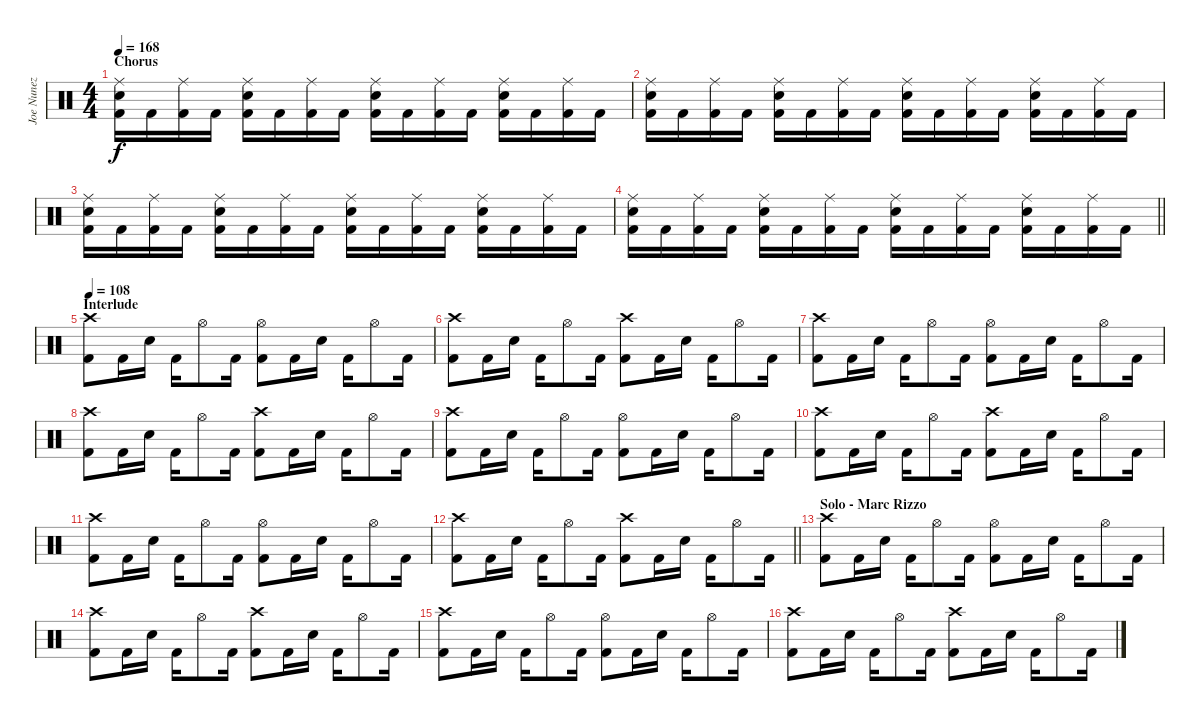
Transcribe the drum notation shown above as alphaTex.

\track ("Joe Nunez (Drums)" "Joe Nunez ") {instrument percussion}
\staff {score}
\articulation defaults
\ts (4 4)
\section ("" "Chorus")
\tempo 168
\clef neutral
\ks c
("Ride (middle)" "Snare (hit) 2" "Kick (hit) 2").16{dy f} "Kick (hit) 2".16 ("Ride (middle)" "Kick (hit) 2").16 "Kick (hit) 2".16 ("Ride (middle)" "Snare (hit) 2" "Kick (hit) 2").16 "Kick (hit) 2".16 ("Ride (middle)" "Kick (hit) 2").16 "Kick (hit) 2".16 ("Ride (middle)" "Snare (hit) 2" "Kick (hit) 2").16 "Kick (hit) 2".16 ("Ride (middle)" "Kick (hit) 2").16 "Kick (hit) 2".16 ("Ride (middle)" "Snare (hit) 2" "Kick (hit) 2").16 "Kick (hit) 2".16 ("Ride (middle)" "Kick (hit) 2").16 "Kick (hit) 2".16 |
("Ride (middle)" "Snare (hit) 2" "Kick (hit) 2").16 "Kick (hit) 2".16 ("Ride (middle)" "Kick (hit) 2").16 "Kick (hit) 2".16 ("Ride (middle)" "Snare (hit) 2" "Kick (hit) 2").16 "Kick (hit) 2".16 ("Ride (middle)" "Kick (hit) 2").16 "Kick (hit) 2".16 ("Ride (middle)" "Snare (hit) 2" "Kick (hit) 2").16 "Kick (hit) 2".16 ("Ride (middle)" "Kick (hit) 2").16 "Kick (hit) 2".16 ("Ride (middle)" "Snare (hit) 2" "Kick (hit) 2").16 "Kick (hit) 2".16 ("Ride (middle)" "Kick (hit) 2").16 "Kick (hit) 2".16 |
("Ride (middle)" "Snare (hit) 2" "Kick (hit) 2").16 "Kick (hit) 2".16 ("Ride (middle)" "Kick (hit) 2").16 "Kick (hit) 2".16 ("Ride (middle)" "Snare (hit) 2" "Kick (hit) 2").16 "Kick (hit) 2".16 ("Ride (middle)" "Kick (hit) 2").16 "Kick (hit) 2".16 ("Ride (middle)" "Snare (hit) 2" "Kick (hit) 2").16 "Kick (hit) 2".16 ("Ride (middle)" "Kick (hit) 2").16 "Kick (hit) 2".16 ("Ride (middle)" "Snare (hit) 2" "Kick (hit) 2").16 "Kick (hit) 2".16 ("Ride (middle)" "Kick (hit) 2").16 "Kick (hit) 2".16 |
\barLineRight lightlight
("Ride (middle)" "Snare (hit) 2" "Kick (hit) 2").16 "Kick (hit) 2".16 ("Ride (middle)" "Kick (hit) 2").16 "Kick (hit) 2".16 ("Ride (middle)" "Snare (hit) 2" "Kick (hit) 2").16 "Kick (hit) 2".16 ("Ride (middle)" "Kick (hit) 2").16 "Kick (hit) 2".16 ("Ride (middle)" "Snare (hit) 2" "Kick (hit) 2").16 "Kick (hit) 2".16 ("Ride (middle)" "Kick (hit) 2").16 "Kick (hit) 2".16 ("Ride (middle)" "Snare (hit) 2" "Kick (hit) 2").16 "Kick (hit) 2".16 ("Ride (middle)" "Kick (hit) 2").16 "Kick (hit) 2".16 |
\section ("" "Interlude")
\tempo 108
("Crash high (hit)" "Kick (hit) 2").8 "Kick (hit) 2".16 "Snare (hit) 2".16 "Kick (hit) 2".16 "Hi-Hat (open)".8 "Kick (hit) 2".16 ("Hi-Hat (open)" "Kick (hit) 2").8 "Kick (hit) 2".16 "Snare (hit) 2".16 "Kick (hit) 2".16 "Hi-Hat (open)".8 "Kick (hit) 2".16 |
("Crash high (hit)" "Kick (hit) 2").8 "Kick (hit) 2".16 "Snare (hit) 2".16 "Kick (hit) 2".16 "Hi-Hat (open)".8 "Kick (hit) 2".16 ("Crash high (hit)" "Kick (hit) 2").8 "Kick (hit) 2".16 "Snare (hit) 2".16 "Kick (hit) 2".16 "Hi-Hat (open)".8 "Kick (hit) 2".16 |
("Crash high (hit)" "Kick (hit) 2").8 "Kick (hit) 2".16 "Snare (hit) 2".16 "Kick (hit) 2".16 "Hi-Hat (open)".8 "Kick (hit) 2".16 ("Hi-Hat (open)" "Kick (hit) 2").8 "Kick (hit) 2".16 "Snare (hit) 2".16 "Kick (hit) 2".16 "Hi-Hat (open)".8 "Kick (hit) 2".16 |
("Crash high (hit)" "Kick (hit) 2").8 "Kick (hit) 2".16 "Snare (hit) 2".16 "Kick (hit) 2".16 "Hi-Hat (open)".8 "Kick (hit) 2".16 ("Crash high (hit)" "Kick (hit) 2").8 "Kick (hit) 2".16 "Snare (hit) 2".16 "Kick (hit) 2".16 "Hi-Hat (open)".8 "Kick (hit) 2".16 |
("Crash high (hit)" "Kick (hit) 2").8 "Kick (hit) 2".16 "Snare (hit) 2".16 "Kick (hit) 2".16 "Hi-Hat (open)".8 "Kick (hit) 2".16 ("Hi-Hat (open)" "Kick (hit) 2").8 "Kick (hit) 2".16 "Snare (hit) 2".16 "Kick (hit) 2".16 "Hi-Hat (open)".8 "Kick (hit) 2".16 |
("Crash high (hit)" "Kick (hit) 2").8 "Kick (hit) 2".16 "Snare (hit) 2".16 "Kick (hit) 2".16 "Hi-Hat (open)".8 "Kick (hit) 2".16 ("Crash high (hit)" "Kick (hit) 2").8 "Kick (hit) 2".16 "Snare (hit) 2".16 "Kick (hit) 2".16 "Hi-Hat (open)".8 "Kick (hit) 2".16 |
("Crash high (hit)" "Kick (hit) 2").8 "Kick (hit) 2".16 "Snare (hit) 2".16 "Kick (hit) 2".16 "Hi-Hat (open)".8 "Kick (hit) 2".16 ("Hi-Hat (open)" "Kick (hit) 2").8 "Kick (hit) 2".16 "Snare (hit) 2".16 "Kick (hit) 2".16 "Hi-Hat (open)".8 "Kick (hit) 2".16 |
\barLineRight lightlight
("Crash high (hit)" "Kick (hit) 2").8 "Kick (hit) 2".16 "Snare (hit) 2".16 "Kick (hit) 2".16 "Hi-Hat (open)".8 "Kick (hit) 2".16 ("Crash high (hit)" "Kick (hit) 2").8 "Kick (hit) 2".16 "Snare (hit) 2".16 "Kick (hit) 2".16 "Hi-Hat (open)".8 "Kick (hit) 2".16 |
\section ("" "Solo - Marc Rizzo")
("Crash high (hit)" "Kick (hit) 2").8 "Kick (hit) 2".16 "Snare (hit) 2".16 "Kick (hit) 2".16 "Hi-Hat (open)".8 "Kick (hit) 2".16 ("Hi-Hat (open)" "Kick (hit) 2").8 "Kick (hit) 2".16 "Snare (hit) 2".16 "Kick (hit) 2".16 "Hi-Hat (open)".8 "Kick (hit) 2".16 |
("Crash high (hit)" "Kick (hit) 2").8 "Kick (hit) 2".16 "Snare (hit) 2".16 "Kick (hit) 2".16 "Hi-Hat (open)".8 "Kick (hit) 2".16 ("Crash high (hit)" "Kick (hit) 2").8 "Kick (hit) 2".16 "Snare (hit) 2".16 "Kick (hit) 2".16 "Hi-Hat (open)".8 "Kick (hit) 2".16 |
("Crash high (hit)" "Kick (hit) 2").8 "Kick (hit) 2".16 "Snare (hit) 2".16 "Kick (hit) 2".16 "Hi-Hat (open)".8 "Kick (hit) 2".16 ("Hi-Hat (open)" "Kick (hit) 2").8 "Kick (hit) 2".16 "Snare (hit) 2".16 "Kick (hit) 2".16 "Hi-Hat (open)".8 "Kick (hit) 2".16 |
("Crash high (hit)" "Kick (hit) 2").8 "Kick (hit) 2".16 "Snare (hit) 2".16 "Kick (hit) 2".16 "Hi-Hat (open)".8 "Kick (hit) 2".16 ("Crash high (hit)" "Kick (hit) 2").8 "Kick (hit) 2".16 "Snare (hit) 2".16 "Kick (hit) 2".16 "Hi-Hat (open)".8 "Kick (hit) 2".16
